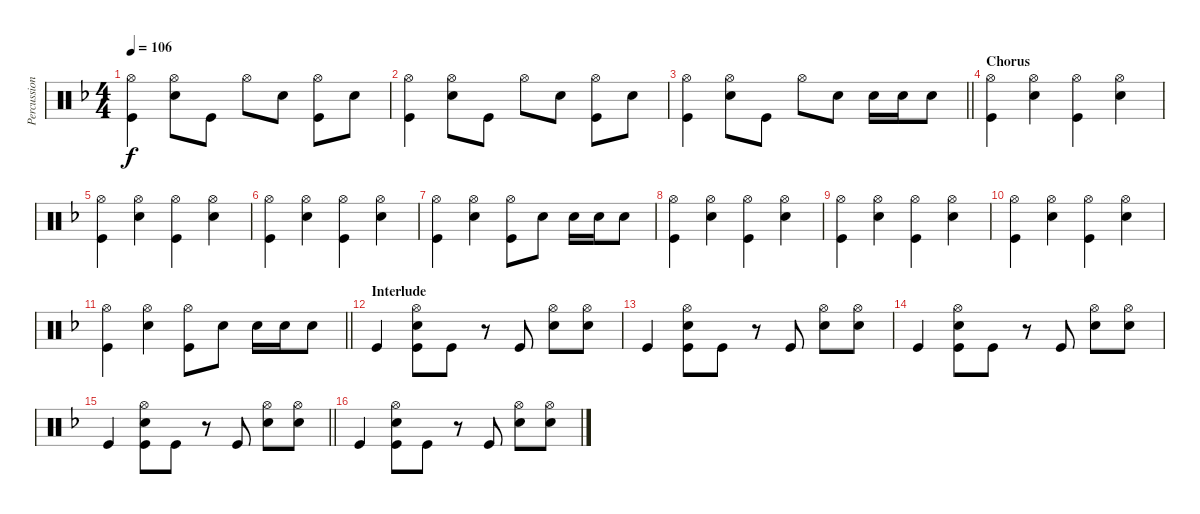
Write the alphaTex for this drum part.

\track ("Percussion" "Percussion") {instrument percussion}
\staff {score}
\articulation defaults
\ts (4 4)
\tempo 106
\clef neutral
\ks dminor
("Hi-Hat (open)" "Kick (hit)").4{dy f} ("Hi-Hat (open)" "Snare (hit) 2").8 "Kick (hit)".8 "Hi-Hat (open)".8 "Snare (hit) 2".8 ("Hi-Hat (open)" "Kick (hit)").8 "Snare (hit) 2".8 |
("Hi-Hat (open)" "Kick (hit)").4 ("Hi-Hat (open)" "Snare (hit) 2").8 "Kick (hit)".8 "Hi-Hat (open)".8 "Snare (hit) 2".8 ("Hi-Hat (open)" "Kick (hit)").8 "Snare (hit) 2".8 |
\barLineRight lightlight
("Hi-Hat (open)" "Kick (hit)").4 ("Hi-Hat (open)" "Snare (hit) 2").8 "Kick (hit)".8 "Hi-Hat (open)".8 "Snare (hit) 2".8 "Snare (hit) 2".16 "Snare (hit) 2".16 "Snare (hit) 2".8 |
\section ("" "Chorus")
("Hi-Hat (open)" "Kick (hit)").4 ("Hi-Hat (open)" "Snare (hit) 2").4 ("Hi-Hat (open)" "Kick (hit)").4 ("Hi-Hat (open)" "Snare (hit) 2").4 |
("Hi-Hat (open)" "Kick (hit)").4 ("Hi-Hat (open)" "Snare (hit) 2").4 ("Hi-Hat (open)" "Kick (hit)").4 ("Hi-Hat (open)" "Snare (hit) 2").4 |
("Hi-Hat (open)" "Kick (hit)").4 ("Hi-Hat (open)" "Snare (hit) 2").4 ("Hi-Hat (open)" "Kick (hit)").4 ("Hi-Hat (open)" "Snare (hit) 2").4 |
("Hi-Hat (open)" "Kick (hit)").4 ("Hi-Hat (open)" "Snare (hit) 2").4 ("Hi-Hat (open)" "Kick (hit)").8 "Snare (hit) 2".8 "Snare (hit) 2".16 "Snare (hit) 2".16 "Snare (hit) 2".8 |
("Hi-Hat (open)" "Kick (hit)").4 ("Hi-Hat (open)" "Snare (hit) 2").4 ("Hi-Hat (open)" "Kick (hit)").4 ("Hi-Hat (open)" "Snare (hit) 2").4 |
("Hi-Hat (open)" "Kick (hit)").4 ("Hi-Hat (open)" "Snare (hit) 2").4 ("Hi-Hat (open)" "Kick (hit)").4 ("Hi-Hat (open)" "Snare (hit) 2").4 |
("Hi-Hat (open)" "Kick (hit)").4 ("Hi-Hat (open)" "Snare (hit) 2").4 ("Hi-Hat (open)" "Kick (hit)").4 ("Hi-Hat (open)" "Snare (hit) 2").4 |
\barLineRight lightlight
("Hi-Hat (open)" "Kick (hit)").4 ("Hi-Hat (open)" "Snare (hit) 2").4 ("Hi-Hat (open)" "Kick (hit)").8 "Snare (hit) 2".8 "Snare (hit) 2".16 "Snare (hit) 2".16 "Snare (hit) 2".8 |
\section ("" "Interlude")
"Kick (hit)".4 ("Hand Clap (hit)" "Hi-Hat (open)" "Kick (hit)").8 "Kick (hit)".8 r.8 "Kick (hit)".8 ("Hand Clap (hit)" "Hi-Hat (open)").8 ("Hand Clap (hit)" "Hi-Hat (open)").8 |
"Kick (hit)".4 ("Hand Clap (hit)" "Hi-Hat (open)" "Kick (hit)").8 "Kick (hit)".8 r.8 "Kick (hit)".8 ("Hand Clap (hit)" "Hi-Hat (open)").8 ("Hand Clap (hit)" "Hi-Hat (open)").8 |
"Kick (hit)".4 ("Hand Clap (hit)" "Hi-Hat (open)" "Kick (hit)").8 "Kick (hit)".8 r.8 "Kick (hit)".8 ("Hand Clap (hit)" "Hi-Hat (open)").8 ("Hand Clap (hit)" "Hi-Hat (open)").8 |
\barLineRight lightlight "Kick (hit)".4
("Hand Clap (hit)" "Hi-Hat (open)" "Kick (hit)").8 "Kick (hit)".8 r.8 "Kick (hit)".8 ("Hand Clap (hit)" "Hi-Hat (open)").8 ("Hand Clap (hit)" "Hi-Hat (open)").8 |
"Kick (hit)".4 ("Hand Clap (hit)" "Hi-Hat (open)" "Kick (hit)").8 "Kick (hit)".8 r.8 "Kick (hit)".8 ("Hand Clap (hit)" "Hi-Hat (open)").8 ("Hand Clap (hit)" "Hi-Hat (open)").8
